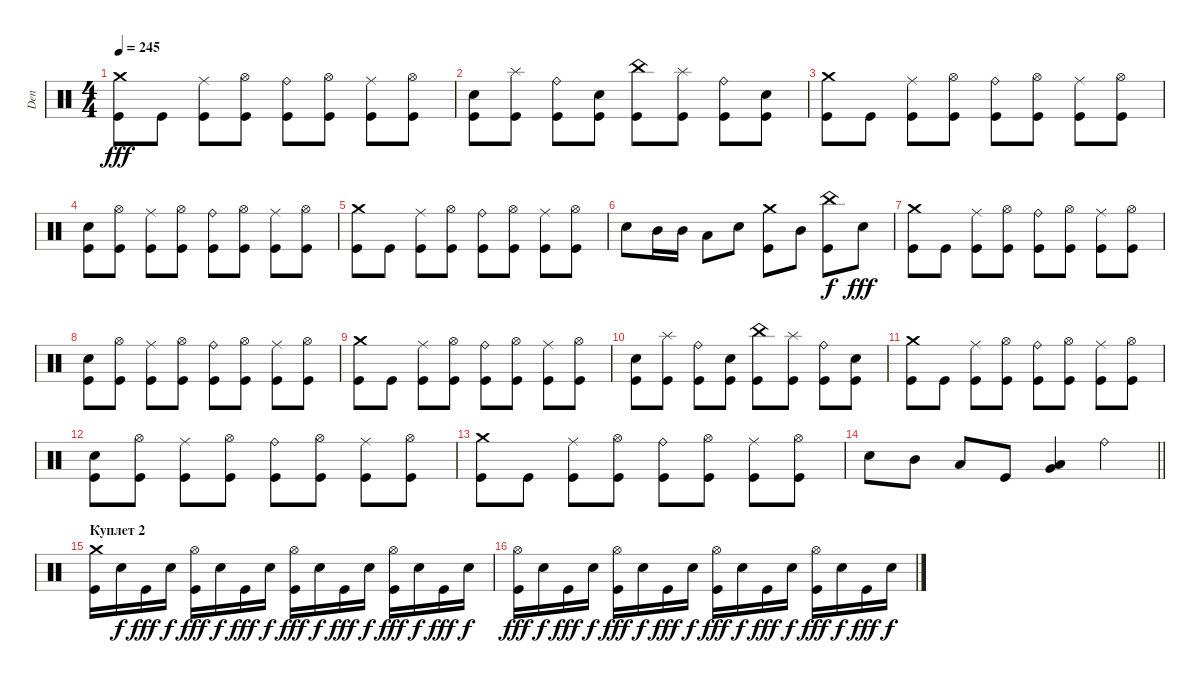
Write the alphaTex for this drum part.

\track ("Den" "Den") {instrument percussion}
\staff {score}
\articulation defaults
\ts (4 4)
\tempo 245
\clef neutral
\ks c
("Kick (hit)" "Crash medium (hit)").8{dy fff} "Kick (hit)".8 ("Kick (hit)" "Ride (middle)").8 ("Kick (hit)" "Hi-Hat (open)").8 ("Kick (hit)" "Ride (bell)").8 ("Kick (hit)" "Hi-Hat (open)").8 ("Kick (hit)" "Ride (middle)").8 ("Kick (hit)" "Hi-Hat (open)").8 |
("Kick (hit)" "Electric Snare (hit)").8 ("Kick (hit)" "Splash (hit)").8 ("Ride (bell)" "Kick (hit)").8 ("Kick (hit)" "Electric Snare (hit)").8 ("Kick (hit)" "China (hit)").8 ("Kick (hit)" "Splash (hit)").8 ("Kick (hit)" "Ride (bell)").8 ("Kick (hit)" "Electric Snare (hit)").8 |
("Kick (hit)" "Crash medium (hit)").8 "Kick (hit)".8 ("Kick (hit)" "Ride (middle)").8 ("Kick (hit)" "Hi-Hat (open)").8 ("Kick (hit)" "Ride (bell)").8 ("Kick (hit)" "Hi-Hat (open)").8 ("Kick (hit)" "Ride (middle)").8 ("Kick (hit)" "Hi-Hat (open)").8 |
("Kick (hit)" "Electric Snare (hit)").8 ("Kick (hit)" "Hi-Hat (open)").8 ("Ride (middle)" "Kick (hit)").8 ("Kick (hit)" "Hi-Hat (open)").8 ("Kick (hit)" "Ride (bell)").8 ("Kick (hit)" "Hi-Hat (open)").8 ("Kick (hit)" "Ride (middle)").8 ("Kick (hit)" "Hi-Hat (open)").8 |
("Kick (hit)" "Crash medium (hit)").8 "Kick (hit)".8 ("Kick (hit)" "Ride (middle)").8 ("Kick (hit)" "Hi-Hat (open)").8 ("Kick (hit)" "Ride (bell)").8 ("Kick (hit)" "Hi-Hat (open)").8 ("Kick (hit)" "Ride (middle)").8 ("Kick (hit)" "Hi-Hat (open)").8 |
"Electric Snare (hit)".8 "Mid Tom (hit)".16 "Mid Tom (hit)".16 "Low Tom (hit)".8 "Electric Snare (hit)".8 ("Crash medium (hit)" "Kick (hit)").8 "Mid Tom (hit)".8 ("China (hit)" "Kick (hit)").8{dy f} "Electric Snare (hit)".8{dy fff} |
("Kick (hit)" "Crash medium (hit)").8 "Kick (hit)".8 ("Kick (hit)" "Ride (middle)").8 ("Kick (hit)" "Hi-Hat (open)").8 ("Kick (hit)" "Ride (bell)").8 ("Kick (hit)" "Hi-Hat (open)").8 ("Kick (hit)" "Ride (middle)").8 ("Kick (hit)" "Hi-Hat (open)").8 |
("Kick (hit)" "Electric Snare (hit)").8 ("Kick (hit)" "Hi-Hat (open)").8 ("Ride (middle)" "Kick (hit)").8 ("Kick (hit)" "Hi-Hat (open)").8 ("Kick (hit)" "Ride (bell)").8 ("Kick (hit)" "Hi-Hat (open)").8 ("Kick (hit)" "Ride (middle)").8 ("Kick (hit)" "Hi-Hat (open)").8 |
("Kick (hit)" "Crash medium (hit)").8 "Kick (hit)".8 ("Kick (hit)" "Ride (middle)").8 ("Kick (hit)" "Hi-Hat (open)").8 ("Kick (hit)" "Ride (bell)").8 ("Kick (hit)" "Hi-Hat (open)").8 ("Kick (hit)" "Ride (middle)").8 ("Kick (hit)" "Hi-Hat (open)").8 |
("Kick (hit)" "Electric Snare (hit)").8 ("Kick (hit)" "Splash (hit)").8 ("Ride (bell)" "Kick (hit)").8 ("Kick (hit)" "Electric Snare (hit)").8 ("Kick (hit)" "China (hit)").8 ("Kick (hit)" "Splash (hit)").8 ("Kick (hit)" "Ride (bell)").8 ("Kick (hit)" "Electric Snare (hit)").8 |
("Kick (hit)" "Crash medium (hit)").8 "Kick (hit)".8 ("Kick (hit)" "Ride (middle)").8 ("Kick (hit)" "Hi-Hat (open)").8 ("Kick (hit)" "Ride (bell)").8 ("Kick (hit)" "Hi-Hat (open)").8 ("Kick (hit)" "Ride (middle)").8 ("Kick (hit)" "Hi-Hat (open)").8 |
("Kick (hit)" "Electric Snare (hit)").8 ("Kick (hit)" "Hi-Hat (open)").8 ("Ride (middle)" "Kick (hit)").8 ("Kick (hit)" "Hi-Hat (open)").8 ("Kick (hit)" "Ride (bell)").8 ("Kick (hit)" "Hi-Hat (open)").8 ("Kick (hit)" "Ride (middle)").8 ("Kick (hit)" "Hi-Hat (open)").8 |
("Kick (hit)" "Crash medium (hit)").8 "Kick (hit)".8 ("Kick (hit)" "Ride (middle)").8 ("Kick (hit)" "Hi-Hat (open)").8 ("Kick (hit)" "Ride (bell)").8 ("Kick (hit)" "Hi-Hat (open)").8 ("Kick (hit)" "Ride (middle)").8 ("Kick (hit)" "Hi-Hat (open)").8 |
\barLineRight lightlight "Electric Snare (hit)".8 "Mid Tom (hit)".8 "Low Tom (hit)".8 "Kick (hit)".8
("Low Tom (hit)" "Very Low Tom (hit)").4 "Ride (bell)".4 |
\section ("" "Куплет 2")
("Crash medium (hit)" "Kick (hit)").16 "Electric Snare (hit)".16{dy f} "Kick (hit)".16{dy fff} "Electric Snare (hit)".16{dy f} ("Kick (hit)" "Hi-Hat (open)").16{dy fff} "Electric Snare (hit)".16{dy f} "Kick (hit)".16{dy fff} "Electric Snare (hit)".16{dy f} ("Kick (hit)" "Hi-Hat (open)").16{dy fff} "Electric Snare (hit)".16{dy f} "Kick (hit)".16{dy fff} "Electric Snare (hit)".16{dy f} ("Kick (hit)" "Hi-Hat (open)").16{dy fff} "Electric Snare (hit)".16{dy f} "Kick (hit)".16{dy fff} "Electric Snare (hit)".16{dy f} |
("Kick (hit)" "Hi-Hat (open)").16{dy fff} "Electric Snare (hit)".16{dy f} "Kick (hit)".16{dy fff} "Electric Snare (hit)".16{dy f} ("Kick (hit)" "Hi-Hat (open)").16{dy fff} "Electric Snare (hit)".16{dy f} "Kick (hit)".16{dy fff} "Electric Snare (hit)".16{dy f} ("Kick (hit)" "Hi-Hat (open)").16{dy fff} "Electric Snare (hit)".16{dy f} "Kick (hit)".16{dy fff} "Electric Snare (hit)".16{dy f} ("Kick (hit)" "Hi-Hat (open)").16{dy fff} "Electric Snare (hit)".16{dy f} "Kick (hit)".16{dy fff} "Electric Snare (hit)".16{dy f}
